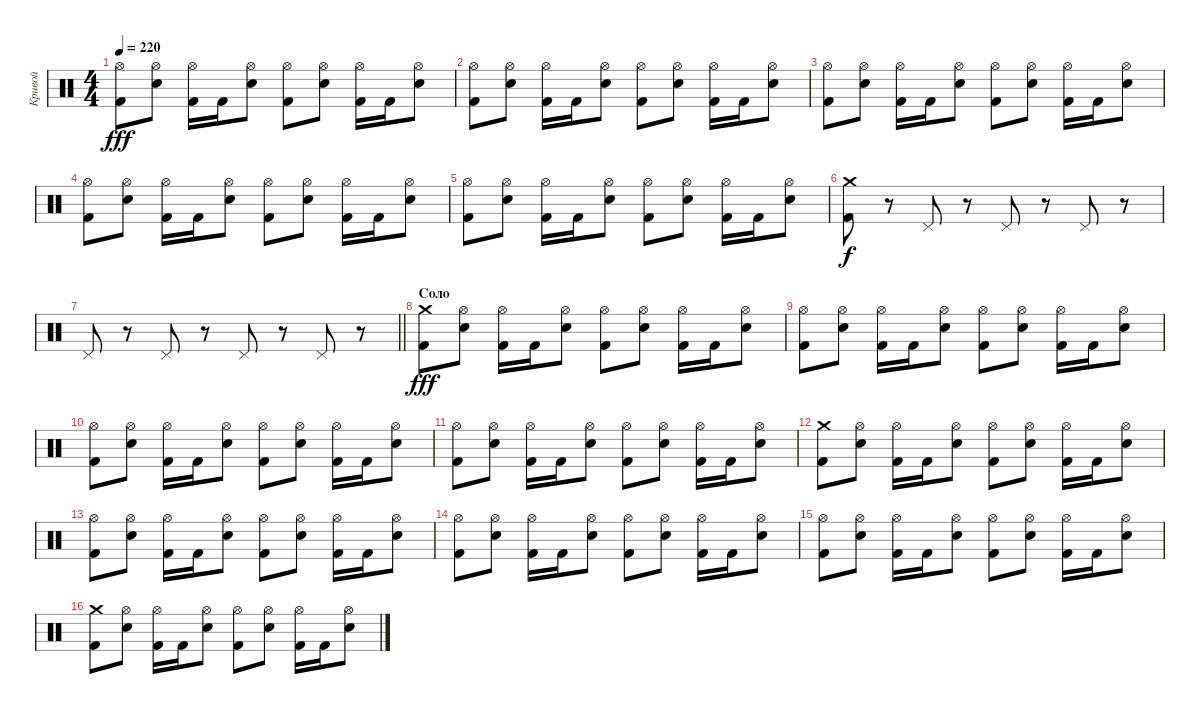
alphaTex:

\track ("Кривой" "Кривой") {instrument percussion}
\staff {score}
\articulation defaults
\ts (4 4)
\tempo 220
\clef neutral
\ks c
("Hi-Hat (open)" "Kick (hit) 2").8{dy fff} ("Hi-Hat (open)" "Electric Snare (hit)").8 ("Hi-Hat (open)" "Kick (hit) 2").16 "Kick (hit) 2".16 ("Hi-Hat (open)" "Electric Snare (hit)").8 ("Hi-Hat (open)" "Kick (hit) 2").8 ("Hi-Hat (open)" "Electric Snare (hit)").8 ("Hi-Hat (open)" "Kick (hit) 2").16 "Kick (hit) 2".16 ("Hi-Hat (open)" "Electric Snare (hit)").8 |
("Hi-Hat (open)" "Kick (hit) 2").8 ("Hi-Hat (open)" "Electric Snare (hit)").8 ("Hi-Hat (open)" "Kick (hit) 2").16 "Kick (hit) 2".16 ("Hi-Hat (open)" "Electric Snare (hit)").8 ("Hi-Hat (open)" "Kick (hit) 2").8 ("Hi-Hat (open)" "Electric Snare (hit)").8 ("Hi-Hat (open)" "Kick (hit) 2").16 "Kick (hit) 2".16 ("Hi-Hat (open)" "Electric Snare (hit)").8 |
("Hi-Hat (open)" "Kick (hit) 2").8 ("Hi-Hat (open)" "Electric Snare (hit)").8 ("Hi-Hat (open)" "Kick (hit) 2").16 "Kick (hit) 2".16 ("Hi-Hat (open)" "Electric Snare (hit)").8 ("Hi-Hat (open)" "Kick (hit) 2").8 ("Hi-Hat (open)" "Electric Snare (hit)").8 ("Hi-Hat (open)" "Kick (hit) 2").16 "Kick (hit) 2".16 ("Hi-Hat (open)" "Electric Snare (hit)").8 |
("Hi-Hat (open)" "Kick (hit) 2").8 ("Hi-Hat (open)" "Electric Snare (hit)").8 ("Hi-Hat (open)" "Kick (hit) 2").16 "Kick (hit) 2".16 ("Hi-Hat (open)" "Electric Snare (hit)").8 ("Hi-Hat (open)" "Kick (hit) 2").8 ("Hi-Hat (open)" "Electric Snare (hit)").8 ("Hi-Hat (open)" "Kick (hit) 2").16 "Kick (hit) 2".16 ("Hi-Hat (open)" "Electric Snare (hit)").8 |
("Hi-Hat (open)" "Kick (hit) 2").8 ("Hi-Hat (open)" "Electric Snare (hit)").8 ("Hi-Hat (open)" "Kick (hit) 2").16 "Kick (hit) 2".16 ("Hi-Hat (open)" "Electric Snare (hit)").8 ("Hi-Hat (open)" "Kick (hit) 2").8 ("Hi-Hat (open)" "Electric Snare (hit)").8 ("Hi-Hat (open)" "Kick (hit) 2").16 "Kick (hit) 2".16 ("Hi-Hat (open)" "Electric Snare (hit)").8 |
("Crash medium (hit)" "Kick (hit) 2").8{dy f} r.8 "Pedal Hi-Hat (hit)".8 r.8 "Pedal Hi-Hat (hit)".8 r.8 "Pedal Hi-Hat (hit)".8 r.8 |
\barLineRight lightlight "Pedal Hi-Hat (hit)".8
r.8 "Pedal Hi-Hat (hit)".8 r.8 "Pedal Hi-Hat (hit)".8 r.8 "Pedal Hi-Hat (hit)".8 r.8 |
\section ("" "Соло")
("Crash medium (hit)" "Kick (hit) 2").8{dy fff} ("Hi-Hat (open)" "Electric Snare (hit)").8 ("Hi-Hat (open)" "Kick (hit) 2").16 "Kick (hit) 2".16 ("Hi-Hat (open)" "Electric Snare (hit)").8 ("Hi-Hat (open)" "Kick (hit) 2").8 ("Hi-Hat (open)" "Electric Snare (hit)").8 ("Hi-Hat (open)" "Kick (hit) 2").16 "Kick (hit) 2".16 ("Hi-Hat (open)" "Electric Snare (hit)").8 |
("Hi-Hat (open)" "Kick (hit) 2").8 ("Hi-Hat (open)" "Electric Snare (hit)").8 ("Hi-Hat (open)" "Kick (hit) 2").16 "Kick (hit) 2".16 ("Hi-Hat (open)" "Electric Snare (hit)").8 ("Hi-Hat (open)" "Kick (hit) 2").8 ("Hi-Hat (open)" "Electric Snare (hit)").8 ("Hi-Hat (open)" "Kick (hit) 2").16 "Kick (hit) 2".16 ("Hi-Hat (open)" "Electric Snare (hit)").8 |
("Hi-Hat (open)" "Kick (hit) 2").8 ("Hi-Hat (open)" "Electric Snare (hit)").8 ("Hi-Hat (open)" "Kick (hit) 2").16 "Kick (hit) 2".16 ("Hi-Hat (open)" "Electric Snare (hit)").8 ("Hi-Hat (open)" "Kick (hit) 2").8 ("Hi-Hat (open)" "Electric Snare (hit)").8 ("Hi-Hat (open)" "Kick (hit) 2").16 "Kick (hit) 2".16 ("Hi-Hat (open)" "Electric Snare (hit)").8 |
("Hi-Hat (open)" "Kick (hit) 2").8 ("Hi-Hat (open)" "Electric Snare (hit)").8 ("Hi-Hat (open)" "Kick (hit) 2").16 "Kick (hit) 2".16 ("Hi-Hat (open)" "Electric Snare (hit)").8 ("Hi-Hat (open)" "Kick (hit) 2").8 ("Hi-Hat (open)" "Electric Snare (hit)").8 ("Hi-Hat (open)" "Kick (hit) 2").16 "Kick (hit) 2".16 ("Hi-Hat (open)" "Electric Snare (hit)").8 |
("Crash medium (hit)" "Kick (hit) 2").8 ("Hi-Hat (open)" "Electric Snare (hit)").8 ("Hi-Hat (open)" "Kick (hit) 2").16 "Kick (hit) 2".16 ("Hi-Hat (open)" "Electric Snare (hit)").8 ("Hi-Hat (open)" "Kick (hit) 2").8 ("Hi-Hat (open)" "Electric Snare (hit)").8 ("Hi-Hat (open)" "Kick (hit) 2").16 "Kick (hit) 2".16 ("Hi-Hat (open)" "Electric Snare (hit)").8 |
("Hi-Hat (open)" "Kick (hit) 2").8 ("Hi-Hat (open)" "Electric Snare (hit)").8 ("Hi-Hat (open)" "Kick (hit) 2").16 "Kick (hit) 2".16 ("Hi-Hat (open)" "Electric Snare (hit)").8 ("Hi-Hat (open)" "Kick (hit) 2").8 ("Hi-Hat (open)" "Electric Snare (hit)").8 ("Hi-Hat (open)" "Kick (hit) 2").16 "Kick (hit) 2".16 ("Hi-Hat (open)" "Electric Snare (hit)").8 |
("Hi-Hat (open)" "Kick (hit) 2").8 ("Hi-Hat (open)" "Electric Snare (hit)").8 ("Hi-Hat (open)" "Kick (hit) 2").16 "Kick (hit) 2".16 ("Hi-Hat (open)" "Electric Snare (hit)").8 ("Hi-Hat (open)" "Kick (hit) 2").8 ("Hi-Hat (open)" "Electric Snare (hit)").8 ("Hi-Hat (open)" "Kick (hit) 2").16 "Kick (hit) 2".16 ("Hi-Hat (open)" "Electric Snare (hit)").8 |
("Hi-Hat (open)" "Kick (hit) 2").8 ("Hi-Hat (open)" "Electric Snare (hit)").8 ("Hi-Hat (open)" "Kick (hit) 2").16 "Kick (hit) 2".16 ("Hi-Hat (open)" "Electric Snare (hit)").8 ("Hi-Hat (open)" "Kick (hit) 2").8 ("Hi-Hat (open)" "Electric Snare (hit)").8 ("Hi-Hat (open)" "Kick (hit) 2").16 "Kick (hit) 2".16 ("Hi-Hat (open)" "Electric Snare (hit)").8 |
("Crash medium (hit)" "Kick (hit) 2").8 ("Hi-Hat (open)" "Electric Snare (hit)").8 ("Hi-Hat (open)" "Kick (hit) 2").16 "Kick (hit) 2".16 ("Hi-Hat (open)" "Electric Snare (hit)").8 ("Hi-Hat (open)" "Kick (hit) 2").8 ("Hi-Hat (open)" "Electric Snare (hit)").8 ("Hi-Hat (open)" "Kick (hit) 2").16 "Kick (hit) 2".16 ("Hi-Hat (open)" "Electric Snare (hit)").8
